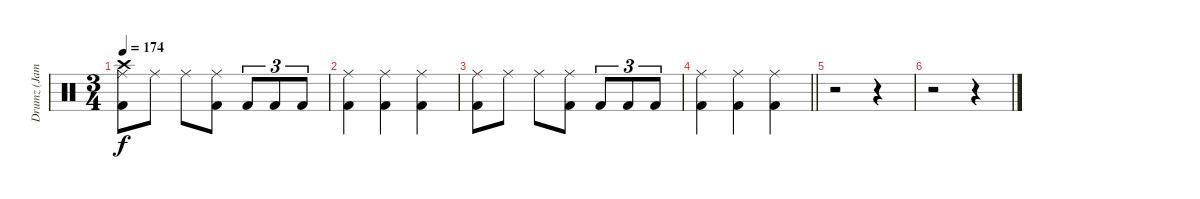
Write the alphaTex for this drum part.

\track ("Drumz (James Kottak)" "Drumz (Jam") {instrument percussion}
\staff {score}
\articulation defaults
\ts (3 4)
\tempo 174
\clef neutral
\ks c
("Ride (middle)" "Crash high (hit)" "Kick (hit) 2").8{dy f} "Ride (middle)".8 "Ride (middle)".8 ("Ride (middle)" "Kick (hit) 2").8 "Kick (hit) 2".8{tu (3 2)} "Kick (hit) 2".8{tu (3 2)} "Kick (hit) 2".8{tu (3 2)} |
("Ride (middle)" "Kick (hit) 2").4 ("Kick (hit) 2" "Ride (middle)").4 ("Ride (middle)" "Kick (hit) 2").4 |
("Ride (middle)" "Kick (hit) 2").8 "Ride (middle)".8 "Ride (middle)".8 ("Ride (middle)" "Kick (hit) 2").8 "Kick (hit) 2".8{tu (3 2)} "Kick (hit) 2".8{tu (3 2)} "Kick (hit) 2".8{tu (3 2)} |
\barLineRight lightlight
("Ride (middle)" "Kick (hit) 2").4 ("Kick (hit) 2" "Ride (middle)").4 ("Ride (middle)" "Kick (hit) 2").4 |
r.2 r.4 |
r.2 r.4
